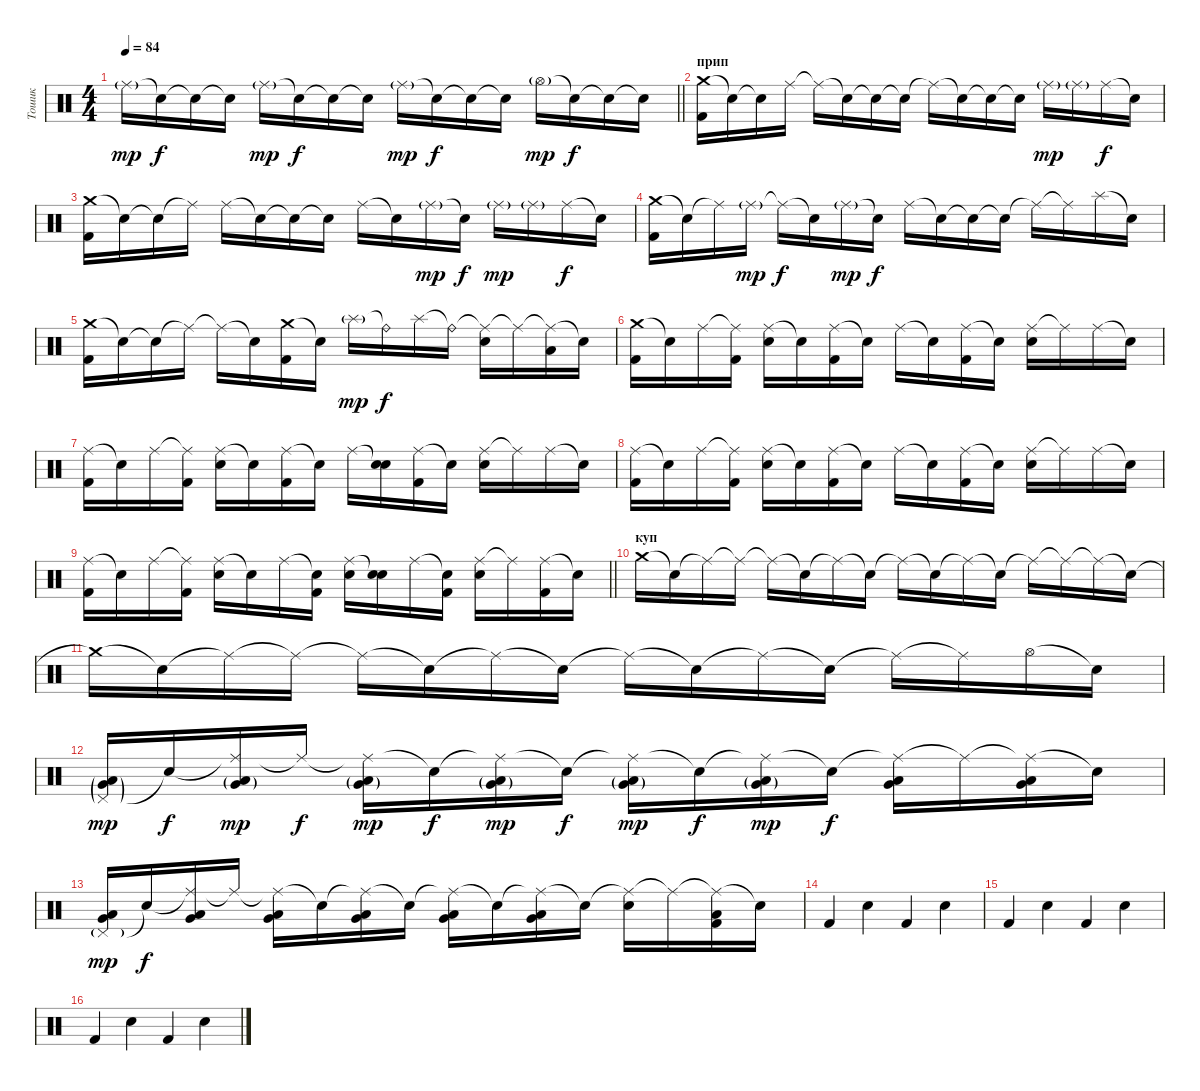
\track ("Тошик" "Тошик") {instrument percussion}
\staff {score}
\articulation defaults
\ts (4 4)
\tempo 84
\clef neutral
\barLineRight lightlight
\ks c "Ride (middle)"{g}.16{dy mp} "Snare (hit)"{t}.16{dy f} "Snare (hit)"{t}.16 "Snare (hit)"{t}.16 "Ride (middle)"{g}.16{dy mp} "Snare (hit)"{t}.16{dy f} "Snare (hit)"{t}.16 "Snare (hit)"{t}.16 "Ride (middle)"{g}.16{dy mp} "Snare (hit)"{t}.16{dy f} "Snare (hit)"{t}.16 "Snare (hit)"{t}.16 "Hi-Hat (open)"{g}.16{dy mp} "Snare (hit)"{t}.16{dy f} "Snare (hit)"{t}.16 "Snare (hit)"{t}.16
|
\section ("" "прип")
("Crash medium (hit)" "Kick (hit) 2").16 "Snare (hit)"{t}.16 "Snare (hit)"{t}.16 "Ride (middle)".16 "Ride (middle)"{t}.16 "Snare (hit)"{t}.16 "Snare (hit)"{t}.16 "Snare (hit)"{t}.16 "Ride (middle)"{t}.16 "Snare (hit)"{t}.16 "Snare (hit)"{t}.16 "Snare (hit)"{t}.16 "Ride (middle)"{g}.16{dy mp} "Ride (middle)"{g}.16 "Ride (middle)".16{dy f} "Snare (hit)"{t}.16 |
("Crash medium (hit)" "Kick (hit) 2").16 "Snare (hit)"{t}.16 "Snare (hit)"{t}.16 "Ride (middle)"{t}.16 "Ride (middle)".16 "Snare (hit)"{t}.16 "Snare (hit)"{t}.16 "Snare (hit)"{t}.16 "Ride (middle)".16 "Snare (hit)"{t}.16 "Ride (middle)"{g}.16{dy mp} "Snare (hit)"{t}.16{dy f} "Ride (middle)"{g}.16{dy mp} "Ride (middle)"{g}.16 "Ride (middle)".16{dy f} "Snare (hit)"{t}.16 |
("Crash medium (hit)" "Kick (hit) 2").16 "Snare (hit)"{t}.16 "Ride (middle)"{t}.16 "Ride (middle)"{g}.16{dy mp} "Ride (middle)"{t}.16{dy f} "Snare (hit)"{t}.16 "Ride (middle)"{g}.16{dy mp} "Snare (hit)"{t}.16{dy f} "Ride (middle)".16 "Snare (hit)"{t}.16 "Snare (hit)"{t}.16 "Snare (hit)"{t}.16 "Ride (middle)"{t}.16 "Ride (middle)"{t}.16 "Splash (hit)".16 "Snare (hit)"{t}.16 |
("Crash medium (hit)" "Kick (hit) 2").16 "Snare (hit)"{t}.16 "Snare (hit)"{t}.16 "Ride (middle)"{t}.16 "Ride (middle)"{t}.16 "Snare (hit)"{t}.16 ("Crash medium (hit)" "Kick (hit) 2").16 "Snare (hit)"{t}.16 "Splash (hit)"{g}.16{dy mp} "Ride (bell)"{t}.16{dy f} "Splash (hit)".16 "Ride (bell)"{t}.16 ("Ride (middle)"{t} "Snare (hit) 2").16 "Ride (middle)"{t}.16 ("Ride (middle)"{t} "Low Floor Tom (hit)").16 "Snare (hit)"{t}.16 |
("Crash medium (hit)" "Kick (hit) 2").16 "Snare (hit)"{t}.16 "Ride (middle)".16 ("Ride (middle)"{t} "Kick (hit) 2").16 ("Ride (middle)" "Snare (hit) 2").16 "Snare (hit)"{t}.16 ("Ride (middle)" "Kick (hit) 2").16 "Snare (hit)"{t}.16 "Ride (middle)".16 "Snare (hit)"{t}.16 ("Ride (middle)" "Kick (hit) 2").16 "Snare (hit)"{t}.16 ("Ride (middle)" "Snare (hit) 2").16 "Ride (middle)"{t}.16 "Ride (middle)".16 "Snare (hit)"{t}.16 |
("Ride (middle)" "Kick (hit) 2").16 "Snare (hit)"{t}.16 "Ride (middle)".16 ("Ride (middle)"{t} "Kick (hit) 2").16 ("Ride (middle)" "Snare (hit) 2").16 "Snare (hit)"{t}.16 ("Ride (middle)" "Kick (hit) 2").16 "Snare (hit)"{t}.16 "Ride (middle)".16 ("Snare (hit)"{t} "Snare (hit) 2").16 ("Ride (middle)" "Kick (hit) 2").16 "Snare (hit)"{t}.16 ("Ride (middle)" "Snare (hit) 2").16 "Ride (middle)"{t}.16 "Ride (middle)".16 "Snare (hit)"{t}.16 |
("Ride (middle)" "Kick (hit) 2").16 "Snare (hit)"{t}.16 "Ride (middle)".16 ("Ride (middle)"{t} "Kick (hit) 2").16 ("Ride (middle)" "Snare (hit) 2").16 "Snare (hit)"{t}.16 ("Ride (middle)" "Kick (hit) 2").16 "Snare (hit)"{t}.16 "Ride (middle)".16 "Snare (hit)"{t}.16 ("Ride (middle)" "Kick (hit) 2").16 "Snare (hit)"{t}.16 ("Ride (middle)" "Snare (hit) 2").16 "Ride (middle)"{t}.16 "Ride (middle)".16 "Snare (hit)"{t}.16 |
\barLineRight lightlight
("Ride (middle)" "Kick (hit) 2").16 "Snare (hit)"{t}.16 "Ride (middle)".16 ("Ride (middle)"{t} "Kick (hit) 2").16 ("Ride (middle)" "Snare (hit) 2").16 "Snare (hit)"{t}.16 "Ride (middle)".16 ("Snare (hit)"{t} "Kick (hit) 2").16 ("Ride (middle)" "Snare (hit) 2").16 ("Snare (hit)"{t} "Snare (hit) 2").16 "Ride (middle)".16 ("Snare (hit)"{t} "Kick (hit) 2").16 ("Ride (middle)" "Snare (hit) 2").16 "Ride (middle)"{t}.16 ("Ride (middle)" "Kick (hit) 2").16 "Snare (hit)"{t}.16 |
\section ("" "куп")
"Crash medium (hit)".16 "Snare (hit)"{t}.16 "Ride (middle)"{t}.16 "Ride (middle)"{t}.16 "Ride (middle)"{t}.16 "Snare (hit)"{t}.16 "Ride (middle)"{t}.16 "Snare (hit)"{t}.16 "Ride (middle)"{t}.16 "Snare (hit)"{t}.16 "Ride (middle)"{t}.16 "Snare (hit)"{t}.16 "Ride (middle)"{t}.16 "Ride (middle)"{t}.16 "Ride (middle)"{t}.16 "Snare (hit)"{t}.16 |
"Crash medium (hit)"{t}.16 "Snare (hit)"{t}.16 "Ride (middle)"{t}.16 "Ride (middle)"{t}.16 "Ride (middle)"{t}.16 "Snare (hit)"{t}.16 "Ride (middle)"{t}.16 "Snare (hit)"{t}.16 "Ride (middle)"{t}.16 "Snare (hit)"{t}.16 "Ride (middle)"{t}.16 "Snare (hit)"{t}.16 "Ride (middle)"{t}.16 "Ride (middle)"{t}.16 "Hi-Hat (open)".16 "Snare (hit)"{t}.16 |
("Pedal Hi-Hat (hit)"{g} "Low Tom (hit)"{g} "Very Low Tom (hit)"{g}).16{dy mp} "Snare (hit)"{t}.16{dy f} ("Ride (middle)"{t} "Low Tom (hit)"{g} "Very Low Tom (hit)"{g}).16{dy mp} "Ride (middle)"{t}.16{dy f} ("Ride (middle)"{t} "Low Tom (hit)"{g} "Very Low Tom (hit)"{g}).16{dy mp} "Snare (hit)"{t}.16{dy f} ("Ride (middle)"{t} "Low Tom (hit)"{g} "Very Low Tom (hit)"{g}).16{dy mp} "Snare (hit)"{t}.16{dy f} ("Ride (middle)"{t} "Low Tom (hit)"{g} "Very Low Tom (hit)"{g}).16{dy mp} "Snare (hit)"{t}.16{dy f} ("Ride (middle)"{t} "Low Tom (hit)"{g} "Very Low Tom (hit)"{g}).16{dy mp} "Snare (hit)"{t}.16{dy f} ("Ride (middle)"{t} "Low Tom (hit)" "Very Low Tom (hit)").16 "Ride (middle)"{t}.16 ("Ride (middle)"{t} "Low Tom (hit)" "Very Low Tom (hit)").16 "Snare (hit)"{t}.16 |
("Pedal Hi-Hat (hit)"{g} "Low Tom (hit)" "Very Low Tom (hit)").16{dy mp} "Snare (hit)"{t}.16{dy f} ("Ride (middle)"{t} "Low Tom (hit)" "Very Low Tom (hit)").16 "Ride (middle)"{t}.16 ("Ride (middle)"{t} "Low Tom (hit)" "Very Low Tom (hit)").16 "Snare (hit)"{t}.16 ("Ride (middle)"{t} "Low Tom (hit)" "Very Low Tom (hit)").16 "Snare (hit)"{t}.16 ("Ride (middle)"{t} "Low Floor Tom (hit)" "Very Low Tom (hit)").16 "Snare (hit)"{t}.16 ("Ride (middle)"{t} "Low Floor Tom (hit)" "Very Low Tom (hit)").16 "Snare (hit)"{t}.16 ("Ride (middle)"{t} "Snare (hit) 2").16 "Ride (middle)"{t}.16 ("Ride (middle)"{t} "Low Floor Tom (hit)" "Kick (hit) 2").16 "Snare (hit)"{t}.16 |
"Kick (hit) 2".4 "Snare (hit) 2".4 "Kick (hit) 2".4 "Snare (hit) 2".4 |
"Kick (hit) 2".4 "Snare (hit) 2".4 "Kick (hit) 2".4 "Snare (hit) 2".4 |
"Kick (hit) 2".4 "Snare (hit) 2".4 "Kick (hit) 2".4 "Snare (hit) 2".4
